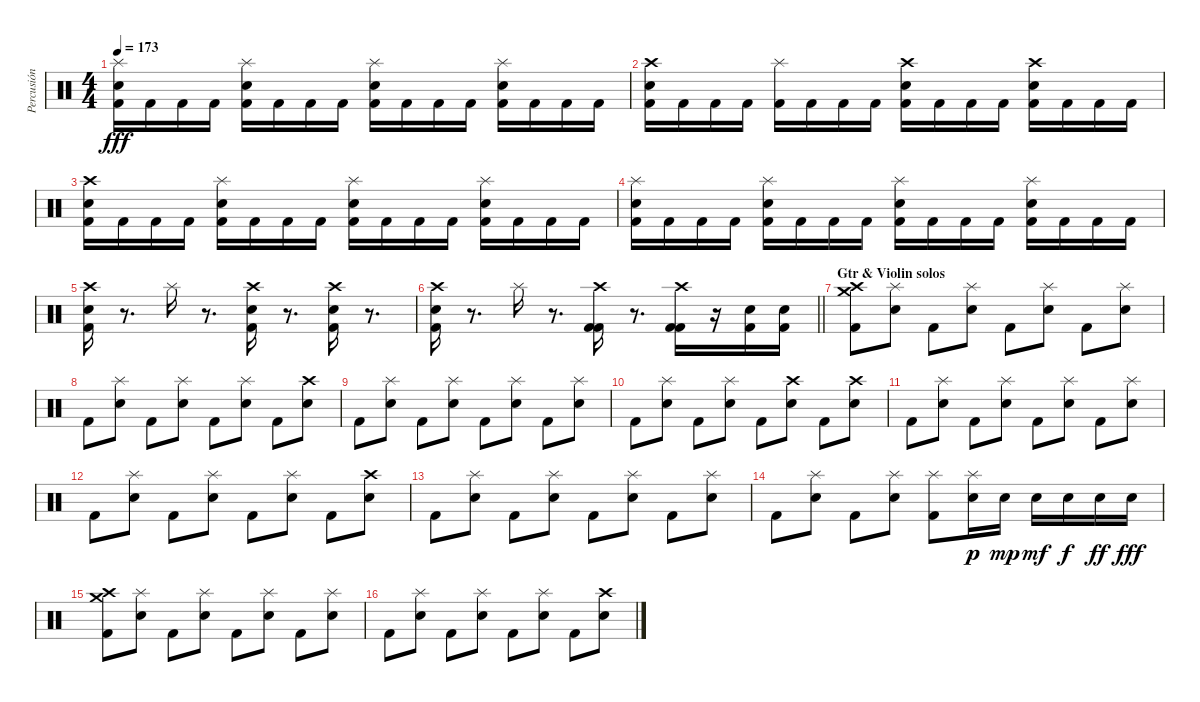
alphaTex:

\track ("Percusión" "Percusión") {instrument percussion}
\staff {score}
\articulation defaults
\ts (4 4)
\tempo 173
\clef neutral
\ks c
("Splash (hit)" "Electric Snare (hit)" "Kick (hit) 2").16{dy fff} "Kick (hit) 2".16 "Kick (hit) 2".16 "Kick (hit) 2".16 ("Splash (hit)" "Electric Snare (hit)" "Kick (hit) 2").16 "Kick (hit) 2".16 "Kick (hit) 2".16 "Kick (hit) 2".16 ("Splash (hit)" "Electric Snare (hit)" "Kick (hit) 2").16 "Kick (hit) 2".16 "Kick (hit) 2".16 "Kick (hit) 2".16 ("Splash (hit)" "Electric Snare (hit)" "Kick (hit) 2").16 "Kick (hit) 2".16 "Kick (hit) 2".16 "Kick (hit) 2".16 |
("Crash high (hit)" "Electric Snare (hit)" "Kick (hit) 2").16 "Kick (hit) 2".16 "Kick (hit) 2".16 "Kick (hit) 2".16 ("Splash (hit)" "Kick (hit) 2").16 "Kick (hit) 2".16 "Kick (hit) 2".16 "Kick (hit) 2".16 ("Crash high (hit)" "Electric Snare (hit)" "Kick (hit) 2").16 "Kick (hit) 2".16 "Kick (hit) 2".16 "Kick (hit) 2".16 ("Crash high (hit)" "Electric Snare (hit)" "Kick (hit) 2").16 "Kick (hit) 2".16 "Kick (hit) 2".16 "Kick (hit) 2".16 |
("Crash high (hit)" "Electric Snare (hit)" "Kick (hit) 2").16 "Kick (hit) 2".16 "Kick (hit) 2".16 "Kick (hit) 2".16 ("Splash (hit)" "Electric Snare (hit)" "Kick (hit) 2").16 "Kick (hit) 2".16 "Kick (hit) 2".16 "Kick (hit) 2".16 ("Splash (hit)" "Electric Snare (hit)" "Kick (hit) 2").16 "Kick (hit) 2".16 "Kick (hit) 2".16 "Kick (hit) 2".16 ("Splash (hit)" "Electric Snare (hit)" "Kick (hit) 2").16 "Kick (hit) 2".16 "Kick (hit) 2".16 "Kick (hit) 2".16 |
("Splash (hit)" "Electric Snare (hit)" "Kick (hit) 2").16 "Kick (hit) 2".16 "Kick (hit) 2".16 "Kick (hit) 2".16 ("Splash (hit)" "Electric Snare (hit)" "Kick (hit) 2").16 "Kick (hit) 2".16 "Kick (hit) 2".16 "Kick (hit) 2".16 ("Splash (hit)" "Electric Snare (hit)" "Kick (hit) 2").16 "Kick (hit) 2".16 "Kick (hit) 2".16 "Kick (hit) 2".16 ("Splash (hit)" "Electric Snare (hit)" "Kick (hit) 2").16 "Kick (hit) 2".16 "Kick (hit) 2".16 "Kick (hit) 2".16 |
("Crash high (hit)" "Electric Snare (hit)" "Kick (hit) 2").16 r.8{d} "Splash (hit)".16 r.8{d} ("Crash high (hit)" "Electric Snare (hit)" "Kick (hit) 2").16 r.8{d} ("Crash high (hit)" "Electric Snare (hit)" "Kick (hit) 2").16 r.8{d} |
\barLineRight lightlight
("Crash high (hit)" "Electric Snare (hit)" "Kick (hit) 2").16 r.8{d} "Splash (hit)".16 r.8{d} ("Crash high (hit)" "Kick (hit) 2" "Kick (hit) 2").16 r.8{d} ("Crash high (hit)" "Kick (hit) 2" "Kick (hit) 2").16 r.16 ("Snare (hit) 2" "Kick (hit) 2").16 ("Snare (hit) 2" "Kick (hit) 2").16 |
\section ("" "Gtr & Violin solos")
("Crash high (hit)" "Crash medium (hit)" "Kick (hit) 2").8 ("Splash (hit)" "Electric Snare (hit)").8 "Kick (hit) 2".8 ("Splash (hit)" "Electric Snare (hit)").8 "Kick (hit) 2".8 ("Splash (hit)" "Electric Snare (hit)").8 "Kick (hit) 2".8 ("Splash (hit)" "Electric Snare (hit)").8 |
"Kick (hit) 2".8 ("Splash (hit)" "Electric Snare (hit)").8 "Kick (hit) 2".8 ("Splash (hit)" "Electric Snare (hit)").8 "Kick (hit) 2".8 ("Splash (hit)" "Electric Snare (hit)").8 "Kick (hit) 2".8 ("Crash high (hit)" "Electric Snare (hit)").8 |
"Kick (hit) 2".8 ("Splash (hit)" "Electric Snare (hit)").8 "Kick (hit) 2".8 ("Splash (hit)" "Electric Snare (hit)").8 "Kick (hit) 2".8 ("Splash (hit)" "Electric Snare (hit)").8 "Kick (hit) 2".8 ("Splash (hit)" "Electric Snare (hit)").8 |
"Kick (hit) 2".8 ("Splash (hit)" "Electric Snare (hit)").8 "Kick (hit) 2".8 ("Splash (hit)" "Electric Snare (hit)").8 "Kick (hit) 2".8 ("Crash high (hit)" "Electric Snare (hit)").8 "Kick (hit) 2".8 ("Crash high (hit)" "Electric Snare (hit)").8 |
"Kick (hit) 2".8 ("Splash (hit)" "Electric Snare (hit)").8 "Kick (hit) 2".8 ("Splash (hit)" "Electric Snare (hit)").8 "Kick (hit) 2".8 ("Splash (hit)" "Electric Snare (hit)").8 "Kick (hit) 2".8 ("Splash (hit)" "Electric Snare (hit)").8 |
"Kick (hit) 2".8 ("Splash (hit)" "Electric Snare (hit)").8 "Kick (hit) 2".8 ("Splash (hit)" "Electric Snare (hit)").8 "Kick (hit) 2".8 ("Splash (hit)" "Electric Snare (hit)").8 "Kick (hit) 2".8 ("Crash high (hit)" "Electric Snare (hit)").8 |
"Kick (hit) 2".8 ("Splash (hit)" "Electric Snare (hit)").8 "Kick (hit) 2".8 ("Splash (hit)" "Electric Snare (hit)").8 "Kick (hit) 2".8 ("Splash (hit)" "Electric Snare (hit)").8 "Kick (hit) 2".8 ("Splash (hit)" "Electric Snare (hit)").8 |
"Kick (hit) 2".8 ("Splash (hit)" "Electric Snare (hit)").8 "Kick (hit) 2".8 ("Splash (hit)" "Electric Snare (hit)").8 ("Splash (hit)" "Kick (hit) 2").8 ("Splash (hit)" "Electric Snare (hit)").16{dy p} "Electric Snare (hit)".16{dy mp} "Electric Snare (hit)".16{dy mf} "Electric Snare (hit)".16{dy f} "Electric Snare (hit)".16{dy ff} "Electric Snare (hit)".16{dy fff} |
("Crash high (hit)" "Crash medium (hit)" "Kick (hit) 2").8 ("Splash (hit)" "Electric Snare (hit)").8 "Kick (hit) 2".8 ("Splash (hit)" "Electric Snare (hit)").8 "Kick (hit) 2".8 ("Splash (hit)" "Electric Snare (hit)").8 "Kick (hit) 2".8 ("Splash (hit)" "Electric Snare (hit)").8 |
"Kick (hit) 2".8 ("Splash (hit)" "Electric Snare (hit)").8 "Kick (hit) 2".8 ("Splash (hit)" "Electric Snare (hit)").8 "Kick (hit) 2".8 ("Splash (hit)" "Electric Snare (hit)").8 "Kick (hit) 2".8 ("Crash high (hit)" "Electric Snare (hit)").8
